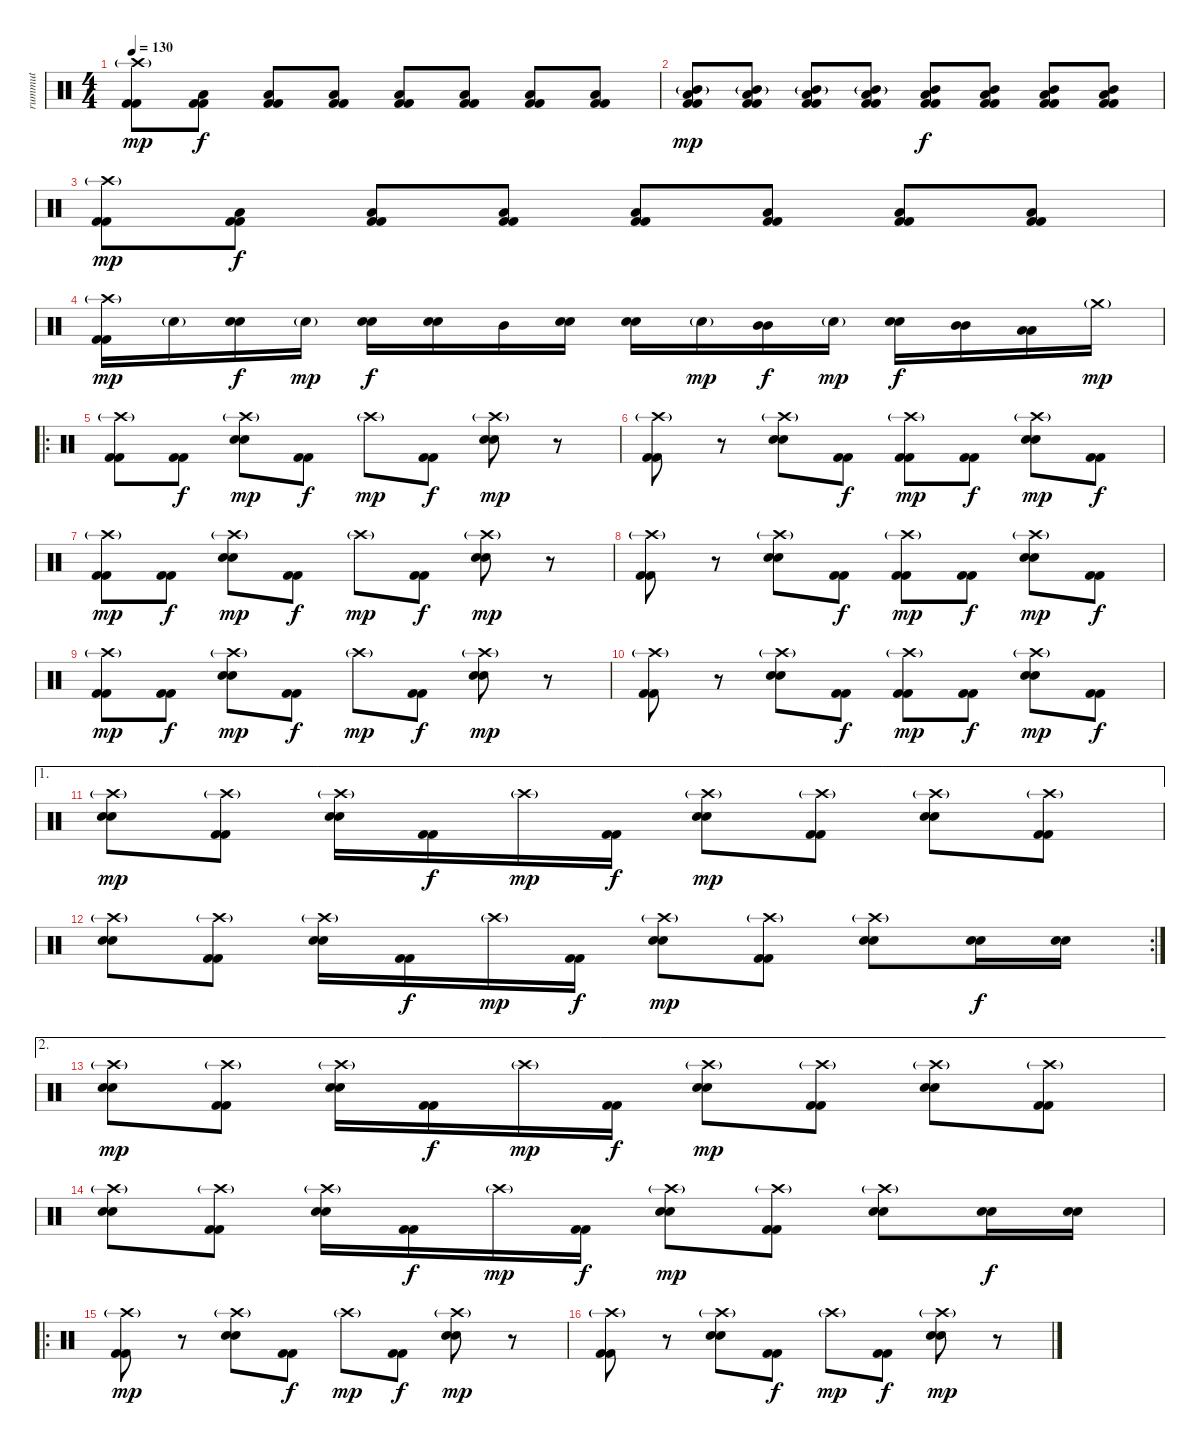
\track ("rummut" "rummut") {instrument percussion}
\staff {score}
\articulation defaults
\ts (4 4)
\tempo 130
\clef neutral
\ks c
("Crash high (hit)"{g} "Kick (hit) 2" "Kick (hit) 2").8{dy mp} ("Low Tom (hit)" "Kick (hit) 2" "Kick (hit) 2").8{dy f} ("Low Tom (hit)" "Kick (hit) 2" "Kick (hit) 2").8 ("Low Tom (hit)" "Kick (hit) 2" "Kick (hit) 2").8 ("Low Tom (hit)" "Kick (hit) 2" "Kick (hit) 2").8 ("Low Tom (hit)" "Kick (hit) 2" "Kick (hit) 2").8 ("Low Tom (hit)" "Kick (hit) 2" "Kick (hit) 2").8 ("Low Tom (hit)" "Kick (hit) 2" "Kick (hit) 2").8 |
("Mid Tom (hit)"{g} "Low Tom (hit)" "Kick (hit) 2" "Kick (hit) 2").8{dy mp} ("Mid Tom (hit)"{g} "Low Tom (hit)" "Kick (hit) 2" "Kick (hit) 2").8 ("Mid Tom (hit)"{g} "Low Tom (hit)" "Kick (hit) 2" "Kick (hit) 2").8 ("Mid Tom (hit)"{g} "Low Tom (hit)" "Kick (hit) 2" "Kick (hit) 2").8 ("Mid Tom (hit)" "Low Tom (hit)" "Kick (hit) 2" "Kick (hit) 2").8{dy f} ("Mid Tom (hit)" "Low Tom (hit)" "Kick (hit) 2" "Kick (hit) 2").8 ("Mid Tom (hit)" "Low Tom (hit)" "Kick (hit) 2" "Kick (hit) 2").8 ("Mid Tom (hit)" "Low Tom (hit)" "Kick (hit) 2" "Kick (hit) 2").8 |
("Crash high (hit)"{g} "Kick (hit) 2" "Kick (hit) 2").8{dy mp} ("Low Tom (hit)" "Kick (hit) 2" "Kick (hit) 2").8{dy f} ("Low Tom (hit)" "Kick (hit) 2" "Kick (hit) 2").8 ("Low Tom (hit)" "Kick (hit) 2" "Kick (hit) 2").8 ("Low Tom (hit)" "Kick (hit) 2" "Kick (hit) 2").8 ("Low Tom (hit)" "Kick (hit) 2" "Kick (hit) 2").8 ("Low Tom (hit)" "Kick (hit) 2" "Kick (hit) 2").8 ("Low Tom (hit)" "Kick (hit) 2" "Kick (hit) 2").8 |
("Crash high (hit)"{g} "Kick (hit) 2" "Kick (hit) 2").16{dy mp} "Electric Snare (hit)"{g}.16 ("Electric Snare (hit)" "Electric Snare (hit)").16{dy f} "Electric Snare (hit)"{g}.16{dy mp} ("Electric Snare (hit)" "Electric Snare (hit)").16{dy f} ("Electric Snare (hit)" "Electric Snare (hit)").16 "Mid Tom (hit)".16 ("Electric Snare (hit)" "Electric Snare (hit)").16 ("Electric Snare (hit)" "Electric Snare (hit)").16 "Electric Snare (hit)"{g}.16{dy mp} ("Mid Tom (hit)" "Mid Tom (hit)").16{dy f} "Electric Snare (hit)"{g}.16{dy mp} ("Electric Snare (hit)" "Electric Snare (hit)").16{dy f} ("Mid Tom (hit)" "Mid Tom (hit)").16 ("Low Tom (hit)" "Low Tom (hit)").16 "Crash medium (hit)"{g}.16{dy mp} |
\ro
("Crash high (hit)"{g} "Kick (hit) 2" "Kick (hit) 2").8 ("Kick (hit) 2" "Kick (hit) 2").8{dy f} ("Crash high (hit)"{g} "Electric Snare (hit)" "Electric Snare (hit)").8{dy mp} ("Kick (hit) 2" "Kick (hit) 2").8{dy f} "Crash high (hit)"{g}.8{dy mp} ("Kick (hit) 2" "Kick (hit) 2").8{dy f} ("Crash high (hit)"{g} "Electric Snare (hit)" "Electric Snare (hit)").8{dy mp} r.8 |
("Crash high (hit)"{g} "Kick (hit) 2" "Kick (hit) 2").8 r.8 ("Crash high (hit)"{g} "Electric Snare (hit)" "Electric Snare (hit)").8 ("Kick (hit) 2" "Kick (hit) 2").8{dy f} ("Crash high (hit)"{g} "Kick (hit) 2" "Kick (hit) 2").8{dy mp} ("Kick (hit) 2" "Kick (hit) 2").8{dy f} ("Crash high (hit)"{g} "Electric Snare (hit)" "Electric Snare (hit)").8{dy mp} ("Kick (hit) 2" "Kick (hit) 2").8{dy f} |
("Crash high (hit)"{g} "Kick (hit) 2" "Kick (hit) 2").8{dy mp} ("Kick (hit) 2" "Kick (hit) 2").8{dy f} ("Crash high (hit)"{g} "Electric Snare (hit)" "Electric Snare (hit)").8{dy mp} ("Kick (hit) 2" "Kick (hit) 2").8{dy f} "Crash high (hit)"{g}.8{dy mp} ("Kick (hit) 2" "Kick (hit) 2").8{dy f} ("Crash high (hit)"{g} "Electric Snare (hit)" "Electric Snare (hit)").8{dy mp} r.8 |
("Crash high (hit)"{g} "Kick (hit) 2" "Kick (hit) 2").8 r.8 ("Crash high (hit)"{g} "Electric Snare (hit)" "Electric Snare (hit)").8 ("Kick (hit) 2" "Kick (hit) 2").8{dy f} ("Crash high (hit)"{g} "Kick (hit) 2" "Kick (hit) 2").8{dy mp} ("Kick (hit) 2" "Kick (hit) 2").8{dy f} ("Crash high (hit)"{g} "Electric Snare (hit)" "Electric Snare (hit)").8{dy mp} ("Kick (hit) 2" "Kick (hit) 2").8{dy f} |
("Crash high (hit)"{g} "Kick (hit) 2" "Kick (hit) 2").8{dy mp} ("Kick (hit) 2" "Kick (hit) 2").8{dy f} ("Crash high (hit)"{g} "Electric Snare (hit)" "Electric Snare (hit)").8{dy mp} ("Kick (hit) 2" "Kick (hit) 2").8{dy f} "Crash high (hit)"{g}.8{dy mp} ("Kick (hit) 2" "Kick (hit) 2").8{dy f} ("Crash high (hit)"{g} "Electric Snare (hit)" "Electric Snare (hit)").8{dy mp} r.8 |
("Crash high (hit)"{g} "Kick (hit) 2" "Kick (hit) 2").8 r.8 ("Crash high (hit)"{g} "Electric Snare (hit)" "Electric Snare (hit)").8 ("Kick (hit) 2" "Kick (hit) 2").8{dy f} ("Crash high (hit)"{g} "Kick (hit) 2" "Kick (hit) 2").8{dy mp} ("Kick (hit) 2" "Kick (hit) 2").8{dy f} ("Crash high (hit)"{g} "Electric Snare (hit)" "Electric Snare (hit)").8{dy mp} ("Kick (hit) 2" "Kick (hit) 2").8{dy f} |
\ae 1
("Crash high (hit)"{g} "Electric Snare (hit)" "Electric Snare (hit)").8{dy mp} ("Crash high (hit)"{g} "Kick (hit) 2" "Kick (hit) 2").8 ("Crash high (hit)"{g} "Electric Snare (hit)" "Electric Snare (hit)").16 ("Kick (hit) 2" "Kick (hit) 2").16{dy f} "Crash high (hit)"{g}.16{dy mp} ("Kick (hit) 2" "Kick (hit) 2").16{dy f} ("Crash high (hit)"{g} "Electric Snare (hit)" "Electric Snare (hit)").8{dy mp} ("Crash high (hit)"{g} "Kick (hit) 2" "Kick (hit) 2").8 ("Crash high (hit)"{g} "Electric Snare (hit)" "Electric Snare (hit)").8 ("Crash high (hit)"{g} "Kick (hit) 2" "Kick (hit) 2").8 |
\rc 2
("Crash high (hit)"{g} "Electric Snare (hit)" "Electric Snare (hit)").8 ("Crash high (hit)"{g} "Kick (hit) 2" "Kick (hit) 2").8 ("Crash high (hit)"{g} "Electric Snare (hit)" "Electric Snare (hit)").16 ("Kick (hit) 2" "Kick (hit) 2").16{dy f} "Crash high (hit)"{g}.16{dy mp} ("Kick (hit) 2" "Kick (hit) 2").16{dy f} ("Crash high (hit)"{g} "Electric Snare (hit)" "Electric Snare (hit)").8{dy mp} ("Crash high (hit)"{g} "Kick (hit) 2" "Kick (hit) 2").8 ("Crash high (hit)"{g} "Electric Snare (hit)" "Electric Snare (hit)").8 ("Electric Snare (hit)" "Electric Snare (hit)").16{dy f} ("Electric Snare (hit)" "Electric Snare (hit)").16 |
\ae 2
("Crash high (hit)"{g} "Electric Snare (hit)" "Electric Snare (hit)").8{dy mp} ("Crash high (hit)"{g} "Kick (hit) 2" "Kick (hit) 2").8 ("Crash high (hit)"{g} "Electric Snare (hit)" "Electric Snare (hit)").16 ("Kick (hit) 2" "Kick (hit) 2").16{dy f} "Crash high (hit)"{g}.16{dy mp} ("Kick (hit) 2" "Kick (hit) 2").16{dy f} ("Crash high (hit)"{g} "Electric Snare (hit)" "Electric Snare (hit)").8{dy mp} ("Crash high (hit)"{g} "Kick (hit) 2" "Kick (hit) 2").8 ("Crash high (hit)"{g} "Electric Snare (hit)" "Electric Snare (hit)").8 ("Crash high (hit)"{g} "Kick (hit) 2" "Kick (hit) 2").8 |
("Crash high (hit)"{g} "Electric Snare (hit)" "Electric Snare (hit)").8 ("Crash high (hit)"{g} "Kick (hit) 2" "Kick (hit) 2").8 ("Crash high (hit)"{g} "Electric Snare (hit)" "Electric Snare (hit)").16 ("Kick (hit) 2" "Kick (hit) 2").16{dy f} "Crash high (hit)"{g}.16{dy mp} ("Kick (hit) 2" "Kick (hit) 2").16{dy f} ("Crash high (hit)"{g} "Electric Snare (hit)" "Electric Snare (hit)").8{dy mp} ("Crash high (hit)"{g} "Kick (hit) 2" "Kick (hit) 2").8 ("Crash high (hit)"{g} "Electric Snare (hit)" "Electric Snare (hit)").8 ("Electric Snare (hit)" "Electric Snare (hit)").16{dy f} ("Electric Snare (hit)" "Electric Snare (hit)").16 |
\ro
("Crash high (hit)"{g} "Kick (hit) 2" "Kick (hit) 2").8{dy mp} r.8 ("Crash high (hit)"{g} "Electric Snare (hit)" "Electric Snare (hit)").8 ("Kick (hit) 2" "Kick (hit) 2").8{dy f} "Crash high (hit)"{g}.8{dy mp} ("Kick (hit) 2" "Kick (hit) 2").8{dy f} ("Crash high (hit)"{g} "Electric Snare (hit)" "Electric Snare (hit)").8{dy mp} r.8 |
("Crash high (hit)"{g} "Kick (hit) 2" "Kick (hit) 2").8 r.8 ("Crash high (hit)"{g} "Electric Snare (hit)" "Electric Snare (hit)").8 ("Kick (hit) 2" "Kick (hit) 2").8{dy f} "Crash high (hit)"{g}.8{dy mp} ("Kick (hit) 2" "Kick (hit) 2").8{dy f} ("Crash high (hit)"{g} "Electric Snare (hit)" "Electric Snare (hit)").8{dy mp} r.8
